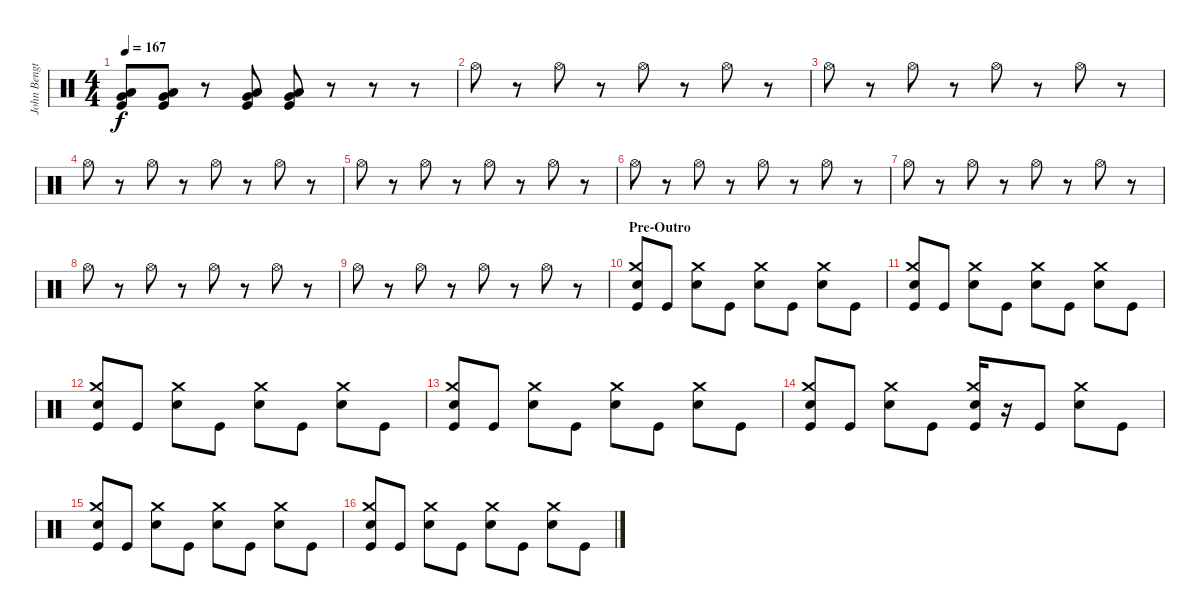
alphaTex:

\track ("John Bengtsson" "John Bengt") {instrument percussion}
\staff {score}
\articulation defaults
\ts (4 4)
\tempo 167
\clef neutral
\ks c
("Low Tom (hit)" "Very Low Tom (hit)" "Kick (hit)").8{dy f} ("Low Tom (hit)" "Very Low Tom (hit)" "Kick (hit)").8 r.8 ("Low Tom (hit)" "Very Low Tom (hit)" "Kick (hit)").8 ("Low Tom (hit)" "Very Low Tom (hit)" "Kick (hit)").8 r.8 r.8 r.8 |
"Hi-Hat (open)".8 r.8 "Hi-Hat (open)".8 r.8 "Hi-Hat (open)".8 r.8 "Hi-Hat (open)".8 r.8 |
"Hi-Hat (open)".8 r.8 "Hi-Hat (open)".8 r.8 "Hi-Hat (open)".8 r.8 "Hi-Hat (open)".8 r.8 |
"Hi-Hat (open)".8 r.8 "Hi-Hat (open)".8 r.8 "Hi-Hat (open)".8 r.8 "Hi-Hat (open)".8 r.8 |
"Hi-Hat (open)".8 r.8 "Hi-Hat (open)".8 r.8 "Hi-Hat (open)".8 r.8 "Hi-Hat (open)".8 r.8 |
"Hi-Hat (open)".8 r.8 "Hi-Hat (open)".8 r.8 "Hi-Hat (open)".8 r.8 "Hi-Hat (open)".8 r.8 |
"Hi-Hat (open)".8 r.8 "Hi-Hat (open)".8 r.8 "Hi-Hat (open)".8 r.8 "Hi-Hat (open)".8 r.8 |
"Hi-Hat (open)".8 r.8 "Hi-Hat (open)".8 r.8 "Hi-Hat (open)".8 r.8 "Hi-Hat (open)".8 r.8 |
"Hi-Hat (open)".8 r.8 "Hi-Hat (open)".8 r.8 "Hi-Hat (open)".8 r.8 "Hi-Hat (open)".8 r.8 |
\section ("" "Pre-Outro")
("Crash medium (hit)" "Snare (hit) 2" "Kick (hit)").8 "Kick (hit)".8 ("Crash medium (hit)" "Snare (hit) 2").8 "Kick (hit)".8 ("Crash medium (hit)" "Snare (hit) 2").8 "Kick (hit)".8 ("Crash medium (hit)" "Snare (hit) 2").8 "Kick (hit)".8 |
("Crash medium (hit)" "Snare (hit) 2" "Kick (hit)").8 "Kick (hit)".8 ("Crash medium (hit)" "Snare (hit) 2").8 "Kick (hit)".8 ("Crash medium (hit)" "Snare (hit) 2").8 "Kick (hit)".8 ("Crash medium (hit)" "Snare (hit) 2").8 "Kick (hit)".8 |
("Crash medium (hit)" "Snare (hit) 2" "Kick (hit)").8 "Kick (hit)".8 ("Crash medium (hit)" "Snare (hit) 2").8 "Kick (hit)".8 ("Crash medium (hit)" "Snare (hit) 2").8 "Kick (hit)".8 ("Crash medium (hit)" "Snare (hit) 2").8 "Kick (hit)".8 |
("Crash medium (hit)" "Snare (hit) 2" "Kick (hit)").8 "Kick (hit)".8 ("Crash medium (hit)" "Snare (hit) 2").8 "Kick (hit)".8 ("Crash medium (hit)" "Snare (hit) 2").8 "Kick (hit)".8 ("Crash medium (hit)" "Snare (hit) 2").8 "Kick (hit)".8 |
("Crash medium (hit)" "Snare (hit) 2" "Kick (hit)").8 "Kick (hit)".8 ("Crash medium (hit)" "Snare (hit) 2").8 "Kick (hit)".8 ("Crash medium (hit)" "Snare (hit) 2" "Kick (hit)").16 r.16 "Kick (hit)".8 ("Crash medium (hit)" "Snare (hit) 2").8 "Kick (hit)".8 |
("Crash medium (hit)" "Snare (hit) 2" "Kick (hit)").8 "Kick (hit)".8 ("Crash medium (hit)" "Snare (hit) 2").8 "Kick (hit)".8 ("Crash medium (hit)" "Snare (hit) 2").8 "Kick (hit)".8 ("Crash medium (hit)" "Snare (hit) 2").8 "Kick (hit)".8 |
("Crash medium (hit)" "Snare (hit) 2" "Kick (hit)").8 "Kick (hit)".8 ("Crash medium (hit)" "Snare (hit) 2").8 "Kick (hit)".8 ("Crash medium (hit)" "Snare (hit) 2").8 "Kick (hit)".8 ("Crash medium (hit)" "Snare (hit) 2").8 "Kick (hit)".8
